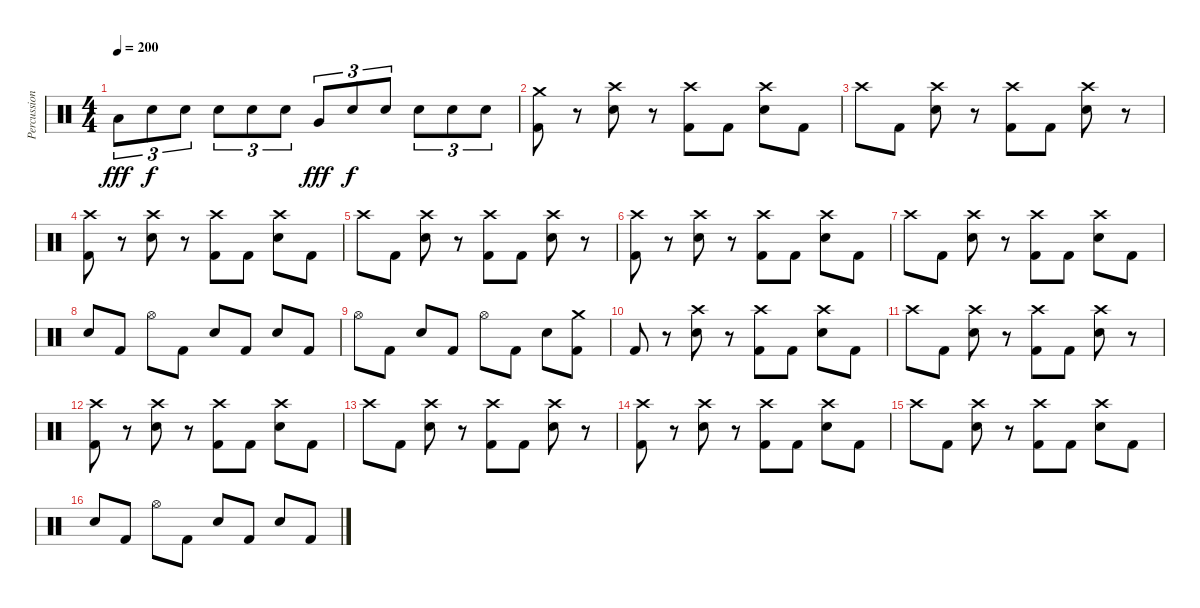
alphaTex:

\track ("Percussion" "Percussion") {instrument percussion}
\staff {score}
\articulation defaults
\ts (4 4)
\tempo 200
\clef neutral
\ks c "Low Tom (hit)".8{tu (3 2) dy fff} "Electric Snare (hit)".8{tu (3 2) dy f} "Electric Snare (hit)".8{tu (3 2)} "Electric Snare (hit)".8{tu (3 2)} "Electric Snare (hit)".8{tu (3 2)} "Electric Snare (hit)".8{tu (3 2)} "Very Low Tom (hit)".8{tu (3 2) dy fff} "Electric Snare (hit)".8{tu (3 2) dy f} "Electric Snare (hit)".8{tu (3 2)} "Electric Snare (hit)".8{tu (3 2)} "Electric Snare (hit)".8{tu (3 2)} "Electric Snare (hit)".8{tu (3 2)}
|
("Crash medium (hit)" "Kick (hit) 2").8 r.8 ("Crash high (hit)" "Electric Snare (hit)").8 r.8 ("Crash high (hit)" "Kick (hit) 2").8 "Kick (hit) 2".8 ("Crash high (hit)" "Electric Snare (hit)").8 "Kick (hit) 2".8 |
"Crash high (hit)".8 "Kick (hit) 2".8 ("Crash high (hit)" "Electric Snare (hit)").8 r.8 ("Crash high (hit)" "Kick (hit) 2").8 "Kick (hit) 2".8 ("Crash high (hit)" "Electric Snare (hit)").8 r.8 |
("Crash high (hit)" "Kick (hit) 2").8 r.8 ("Crash high (hit)" "Electric Snare (hit)").8 r.8 ("Crash high (hit)" "Kick (hit) 2").8 "Kick (hit) 2".8 ("Crash high (hit)" "Electric Snare (hit)").8 "Kick (hit) 2".8 |
"Crash high (hit)".8 "Kick (hit) 2".8 ("Crash high (hit)" "Electric Snare (hit)").8 r.8 ("Crash high (hit)" "Kick (hit) 2").8 "Kick (hit) 2".8 ("Crash high (hit)" "Electric Snare (hit)").8 r.8 |
("Crash high (hit)" "Kick (hit) 2").8 r.8 ("Crash high (hit)" "Electric Snare (hit)").8 r.8 ("Crash high (hit)" "Kick (hit) 2").8 "Kick (hit) 2".8 ("Crash high (hit)" "Electric Snare (hit)").8 "Kick (hit) 2".8 |
"Crash high (hit)".8 "Kick (hit) 2".8 ("Crash high (hit)" "Electric Snare (hit)").8 r.8 ("Crash high (hit)" "Kick (hit) 2").8 "Kick (hit) 2".8 ("Crash high (hit)" "Electric Snare (hit)").8 "Kick (hit) 2".8 |
"Electric Snare (hit)".8 "Kick (hit) 2".8 "Hi-Hat (open)".8 "Kick (hit) 2".8 "Electric Snare (hit)".8 "Kick (hit) 2".8 "Electric Snare (hit)".8 "Kick (hit) 2".8 |
"Hi-Hat (open)".8 "Kick (hit) 2".8 "Electric Snare (hit)".8 "Kick (hit) 2".8 "Hi-Hat (open)".8 "Kick (hit) 2".8 "Electric Snare (hit)".8 ("Crash medium (hit)" "Kick (hit) 2").8 |
"Kick (hit) 2".8 r.8 ("Crash high (hit)" "Electric Snare (hit)").8 r.8 ("Crash high (hit)" "Kick (hit) 2").8 "Kick (hit) 2".8 ("Crash high (hit)" "Electric Snare (hit)").8 "Kick (hit) 2".8 |
"Crash high (hit)".8 "Kick (hit) 2".8 ("Crash high (hit)" "Electric Snare (hit)").8 r.8 ("Crash high (hit)" "Kick (hit) 2").8 "Kick (hit) 2".8 ("Crash high (hit)" "Electric Snare (hit)").8 r.8 |
("Crash high (hit)" "Kick (hit) 2").8 r.8 ("Crash high (hit)" "Electric Snare (hit)").8 r.8 ("Crash high (hit)" "Kick (hit) 2").8 "Kick (hit) 2".8 ("Crash high (hit)" "Electric Snare (hit)").8 "Kick (hit) 2".8 |
"Crash high (hit)".8 "Kick (hit) 2".8 ("Crash high (hit)" "Electric Snare (hit)").8 r.8 ("Crash high (hit)" "Kick (hit) 2").8 "Kick (hit) 2".8 ("Crash high (hit)" "Electric Snare (hit)").8 r.8 |
("Crash high (hit)" "Kick (hit) 2").8 r.8 ("Crash high (hit)" "Electric Snare (hit)").8 r.8 ("Crash high (hit)" "Kick (hit) 2").8 "Kick (hit) 2".8 ("Crash high (hit)" "Electric Snare (hit)").8 "Kick (hit) 2".8 |
"Crash high (hit)".8 "Kick (hit) 2".8 ("Crash high (hit)" "Electric Snare (hit)").8 r.8 ("Crash high (hit)" "Kick (hit) 2").8 "Kick (hit) 2".8 ("Crash high (hit)" "Electric Snare (hit)").8 "Kick (hit) 2".8 |
"Electric Snare (hit)".8 "Kick (hit) 2".8 "Hi-Hat (open)".8 "Kick (hit) 2".8 "Electric Snare (hit)".8 "Kick (hit) 2".8 "Electric Snare (hit)".8 "Kick (hit) 2".8
